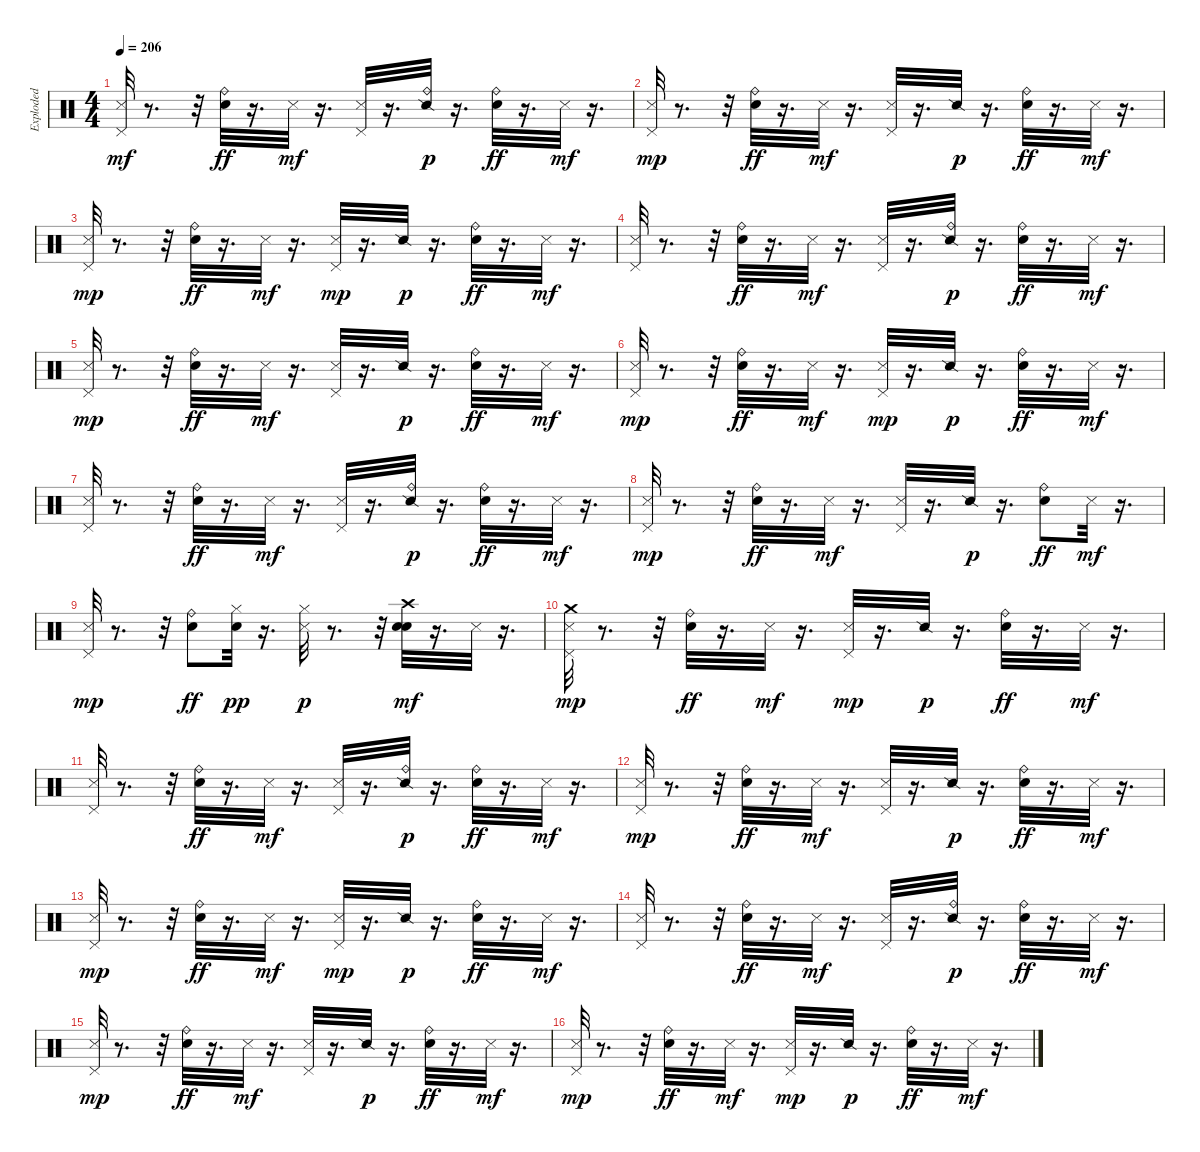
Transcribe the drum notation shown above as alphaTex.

\track ("Exploded" "Exploded") {instrument percussion}
\staff {score}
\articulation defaults
\ts (4 4)
\tempo 206
\clef neutral
\ks c
("Metronome (hit)" "Pedal Hi-Hat (hit)").32{dy mf} r.8{d} r.32 ("Electric Snare (hit)" "Ride (bell)").32{dy ff} r.16{d} "Metronome (hit)".32{dy mf} r.16{d} ("Metronome (hit)" "Pedal Hi-Hat (hit)").32 r.16{d} ("Snare (side stick) 2" "Ride (bell)").32{dy p} r.16{d} ("Electric Snare (hit)" "Ride (bell)").32{dy ff} r.16{d} "Metronome (hit)".32{dy mf} r.16{d} |
("Metronome (hit)" "Pedal Hi-Hat (hit)").32{dy mp} r.8{d} r.32 ("Electric Snare (hit)" "Ride (bell)").32{dy ff} r.16{d} "Metronome (hit)".32{dy mf} r.16{d} ("Metronome (hit)" "Pedal Hi-Hat (hit)").32 r.16{d} "Snare (side stick) 2".32{dy p} r.16{d} ("Electric Snare (hit)" "Ride (bell)").32{dy ff} r.16{d} "Metronome (hit)".32{dy mf} r.16{d} |
("Metronome (hit)" "Pedal Hi-Hat (hit)").32{dy mp} r.8{d} r.32 ("Electric Snare (hit)" "Ride (bell)").32{dy ff} r.16{d} "Metronome (hit)".32{dy mf} r.16{d} ("Metronome (hit)" "Pedal Hi-Hat (hit)").32{dy mp} r.16{d} "Snare (side stick) 2".32{dy p} r.16{d} ("Electric Snare (hit)" "Ride (bell)").32{dy ff} r.16{d} "Metronome (hit)".32{dy mf} r.16{d} |
("Metronome (hit)" "Pedal Hi-Hat (hit)").32 r.8{d} r.32 ("Electric Snare (hit)" "Ride (bell)").32{dy ff} r.16{d} "Metronome (hit)".32{dy mf} r.16{d} ("Metronome (hit)" "Pedal Hi-Hat (hit)").32 r.16{d} ("Snare (side stick) 2" "Ride (bell)").32{dy p} r.16{d} ("Electric Snare (hit)" "Ride (bell)").32{dy ff} r.16{d} "Metronome (hit)".32{dy mf} r.16{d} |
("Metronome (hit)" "Pedal Hi-Hat (hit)").32{dy mp} r.8{d} r.32 ("Electric Snare (hit)" "Ride (bell)").32{dy ff} r.16{d} "Metronome (hit)".32{dy mf} r.16{d} ("Metronome (hit)" "Pedal Hi-Hat (hit)").32 r.16{d} "Snare (side stick) 2".32{dy p} r.16{d} ("Electric Snare (hit)" "Ride (bell)").32{dy ff} r.16{d} "Metronome (hit)".32{dy mf} r.16{d} |
("Metronome (hit)" "Pedal Hi-Hat (hit)").32{dy mp} r.8{d} r.32 ("Electric Snare (hit)" "Ride (bell)").32{dy ff} r.16{d} "Metronome (hit)".32{dy mf} r.16{d} ("Metronome (hit)" "Pedal Hi-Hat (hit)").32{dy mp} r.16{d} "Snare (side stick) 2".32{dy p} r.16{d} ("Electric Snare (hit)" "Ride (bell)").32{dy ff} r.16{d} "Metronome (hit)".32{dy mf} r.16{d} |
("Metronome (hit)" "Pedal Hi-Hat (hit)").32 r.8{d} r.32 ("Electric Snare (hit)" "Ride (bell)").32{dy ff} r.16{d} "Metronome (hit)".32{dy mf} r.16{d} ("Metronome (hit)" "Pedal Hi-Hat (hit)").32 r.16{d} ("Snare (side stick) 2" "Ride (bell)").32{dy p} r.16{d} ("Electric Snare (hit)" "Ride (bell)").32{dy ff} r.16{d} "Metronome (hit)".32{dy mf} r.16{d} |
("Metronome (hit)" "Pedal Hi-Hat (hit)").32{dy mp} r.8{d} r.32 ("Electric Snare (hit)" "Ride (bell)").32{dy ff} r.16{d} "Metronome (hit)".32{dy mf} r.16{d} ("Metronome (hit)" "Pedal Hi-Hat (hit)").32 r.16{d} "Snare (side stick) 2".32{dy p} r.16{d} ("Electric Snare (hit)" "Ride (bell)").8{dy ff} "Metronome (hit)".32{dy mf} r.16{d} |
("Metronome (hit)" "Pedal Hi-Hat (hit)").32{dy mp} r.8{d} r.32 ("Electric Snare (hit)" "Ride (bell)").8{dy ff} ("Electric Snare (hit)" "Hi-Hat (closed)").32{dy pp} r.16{d} ("Metronome (hit)" "Hi-Hat (closed)").32{dy p} r.8{d} r.32 ("Metronome (bell)" "Electric Snare (hit)" "Crash high (hit)").32{dy mf} r.16{d} "Metronome (hit)".32 r.16{d} |
("Crash medium (hit)" "Metronome (hit)" "Pedal Hi-Hat (hit)").32{dy mp} r.8{d} r.32 ("Electric Snare (hit)" "Ride (bell)").32{dy ff} r.16{d} "Metronome (hit)".32{dy mf} r.16{d} ("Metronome (hit)" "Pedal Hi-Hat (hit)").32{dy mp} r.16{d} "Snare (side stick) 2".32{dy p} r.16{d} ("Electric Snare (hit)" "Ride (bell)").32{dy ff} r.16{d} "Metronome (hit)".32{dy mf} r.16{d} |
("Metronome (hit)" "Pedal Hi-Hat (hit)").32 r.8{d} r.32 ("Electric Snare (hit)" "Ride (bell)").32{dy ff} r.16{d} "Metronome (hit)".32{dy mf} r.16{d} ("Metronome (hit)" "Pedal Hi-Hat (hit)").32 r.16{d} ("Snare (side stick) 2" "Ride (bell)").32{dy p} r.16{d} ("Electric Snare (hit)" "Ride (bell)").32{dy ff} r.16{d} "Metronome (hit)".32{dy mf} r.16{d} |
("Metronome (hit)" "Pedal Hi-Hat (hit)").32{dy mp} r.8{d} r.32 ("Electric Snare (hit)" "Ride (bell)").32{dy ff} r.16{d} "Metronome (hit)".32{dy mf} r.16{d} ("Metronome (hit)" "Pedal Hi-Hat (hit)").32 r.16{d} "Snare (side stick) 2".32{dy p} r.16{d} ("Electric Snare (hit)" "Ride (bell)").32{dy ff} r.16{d} "Metronome (hit)".32{dy mf} r.16{d} |
("Metronome (hit)" "Pedal Hi-Hat (hit)").32{dy mp} r.8{d} r.32 ("Electric Snare (hit)" "Ride (bell)").32{dy ff} r.16{d} "Metronome (hit)".32{dy mf} r.16{d} ("Metronome (hit)" "Pedal Hi-Hat (hit)").32{dy mp} r.16{d} "Snare (side stick) 2".32{dy p} r.16{d} ("Electric Snare (hit)" "Ride (bell)").32{dy ff} r.16{d} "Metronome (hit)".32{dy mf} r.16{d} |
("Metronome (hit)" "Pedal Hi-Hat (hit)").32 r.8{d} r.32 ("Electric Snare (hit)" "Ride (bell)").32{dy ff} r.16{d} "Metronome (hit)".32{dy mf} r.16{d} ("Metronome (hit)" "Pedal Hi-Hat (hit)").32 r.16{d} ("Snare (side stick) 2" "Ride (bell)").32{dy p} r.16{d} ("Electric Snare (hit)" "Ride (bell)").32{dy ff} r.16{d} "Metronome (hit)".32{dy mf} r.16{d} |
("Metronome (hit)" "Pedal Hi-Hat (hit)").32{dy mp} r.8{d} r.32 ("Electric Snare (hit)" "Ride (bell)").32{dy ff} r.16{d} "Metronome (hit)".32{dy mf} r.16{d} ("Metronome (hit)" "Pedal Hi-Hat (hit)").32 r.16{d} "Snare (side stick) 2".32{dy p} r.16{d} ("Electric Snare (hit)" "Ride (bell)").32{dy ff} r.16{d} "Metronome (hit)".32{dy mf} r.16{d} |
("Metronome (hit)" "Pedal Hi-Hat (hit)").32{dy mp} r.8{d} r.32 ("Electric Snare (hit)" "Ride (bell)").32{dy ff} r.16{d} "Metronome (hit)".32{dy mf} r.16{d} ("Metronome (hit)" "Pedal Hi-Hat (hit)").32{dy mp} r.16{d} "Snare (side stick) 2".32{dy p} r.16{d} ("Electric Snare (hit)" "Ride (bell)").32{dy ff} r.16{d} "Metronome (hit)".32{dy mf} r.16{d}
